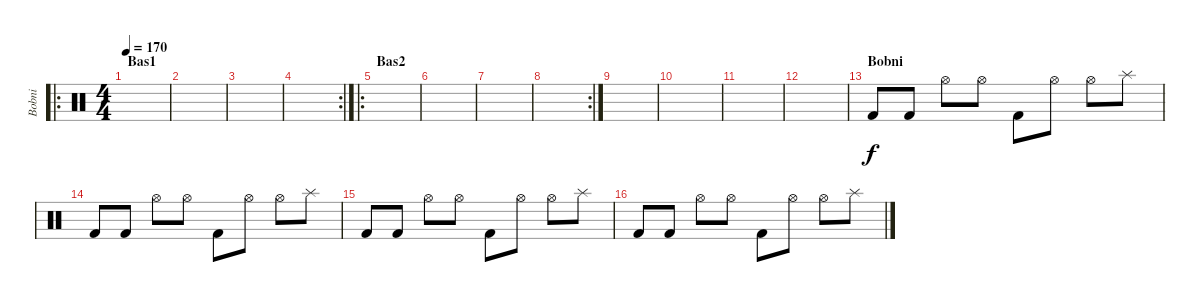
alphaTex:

\track ("Bobni" "Bobni") {instrument percussion}
\staff {score}
\articulation defaults
\ro
\ts (4 4)
\section ("" "Bas1")
\tempo 170
\clef neutral
\ks c
|
|
|
\rc 2
|
\ro
\section ("" "Bas2")
|
|
|
\rc 2
|
|
|
|
|
\section ("" "Bobni")
"Kick (hit) 2".8 "Kick (hit) 2".8 "Hi-Hat (open)".8 "Hi-Hat (open)".8 "Kick (hit) 2".8 "Hi-Hat (open)".8 "Hi-Hat (open)".8 "Splash (hit)".8 |
"Kick (hit) 2".8 "Kick (hit) 2".8 "Hi-Hat (open)".8 "Hi-Hat (open)".8 "Kick (hit) 2".8 "Hi-Hat (open)".8 "Hi-Hat (open)".8 "Splash (hit)".8 |
"Kick (hit) 2".8 "Kick (hit) 2".8 "Hi-Hat (open)".8 "Hi-Hat (open)".8 "Kick (hit) 2".8 "Hi-Hat (open)".8 "Hi-Hat (open)".8 "Splash (hit)".8 |
"Kick (hit) 2".8 "Kick (hit) 2".8 "Hi-Hat (open)".8 "Hi-Hat (open)".8 "Kick (hit) 2".8 "Hi-Hat (open)".8 "Hi-Hat (open)".8 "Splash (hit)".8
